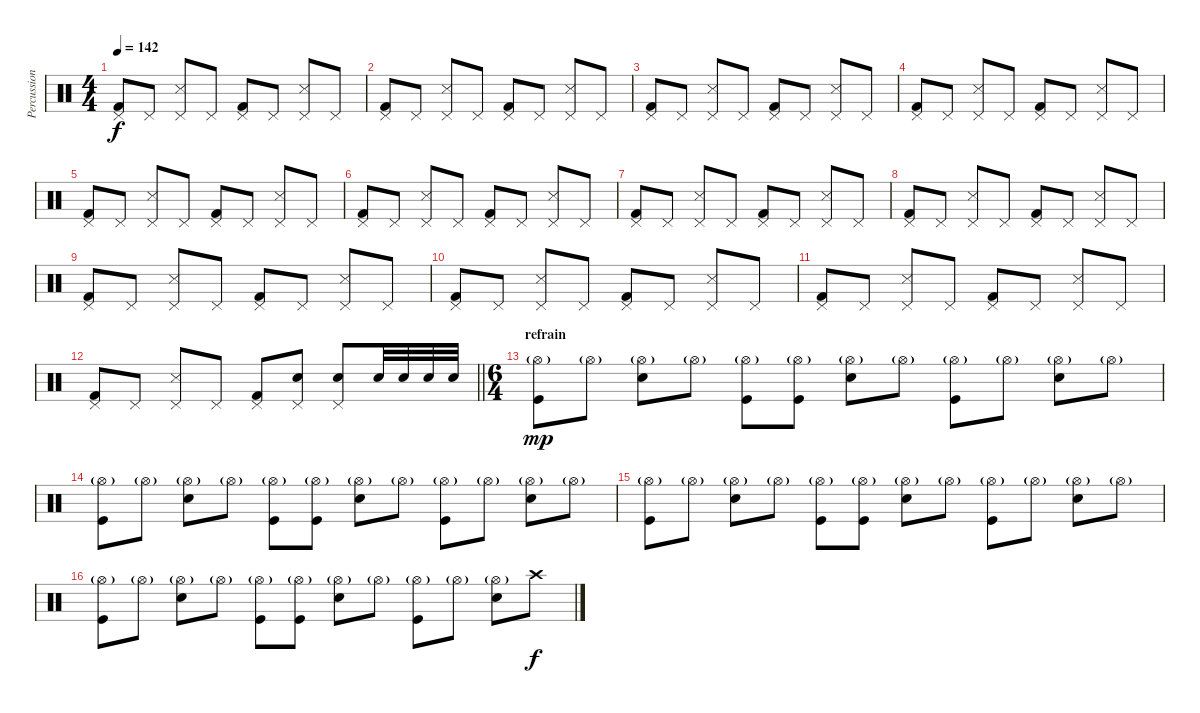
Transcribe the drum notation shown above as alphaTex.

\track ("Percussions" "Percussion") {instrument percussion}
\staff {score}
\articulation defaults
\ts (4 4)
\tempo 142
\clef neutral
\ks c
("Pedal Hi-Hat (hit)" "Kick (hit) 2").8{dy f} "Pedal Hi-Hat (hit)".8 ("Pedal Hi-Hat (hit)" "Snare (side stick) 3").8 "Pedal Hi-Hat (hit)".8 ("Pedal Hi-Hat (hit)" "Kick (hit) 2").8 "Pedal Hi-Hat (hit)".8 ("Pedal Hi-Hat (hit)" "Snare (side stick) 3").8 "Pedal Hi-Hat (hit)".8 |
("Pedal Hi-Hat (hit)" "Kick (hit) 2").8 "Pedal Hi-Hat (hit)".8 ("Pedal Hi-Hat (hit)" "Snare (side stick) 3").8 "Pedal Hi-Hat (hit)".8 ("Pedal Hi-Hat (hit)" "Kick (hit) 2").8 "Pedal Hi-Hat (hit)".8 ("Pedal Hi-Hat (hit)" "Snare (side stick) 3").8 "Pedal Hi-Hat (hit)".8 |
("Pedal Hi-Hat (hit)" "Kick (hit) 2").8 "Pedal Hi-Hat (hit)".8 ("Pedal Hi-Hat (hit)" "Snare (side stick) 3").8 "Pedal Hi-Hat (hit)".8 ("Pedal Hi-Hat (hit)" "Kick (hit) 2").8 "Pedal Hi-Hat (hit)".8 ("Pedal Hi-Hat (hit)" "Snare (side stick) 3").8 "Pedal Hi-Hat (hit)".8 |
("Pedal Hi-Hat (hit)" "Kick (hit) 2").8 "Pedal Hi-Hat (hit)".8 ("Pedal Hi-Hat (hit)" "Snare (side stick) 3").8 "Pedal Hi-Hat (hit)".8 ("Pedal Hi-Hat (hit)" "Kick (hit) 2").8 "Pedal Hi-Hat (hit)".8 ("Pedal Hi-Hat (hit)" "Snare (side stick) 3").8 "Pedal Hi-Hat (hit)".8 |
("Pedal Hi-Hat (hit)" "Kick (hit) 2").8 "Pedal Hi-Hat (hit)".8 ("Pedal Hi-Hat (hit)" "Snare (side stick) 3").8 "Pedal Hi-Hat (hit)".8 ("Pedal Hi-Hat (hit)" "Kick (hit) 2").8 "Pedal Hi-Hat (hit)".8 ("Pedal Hi-Hat (hit)" "Snare (side stick) 3").8 "Pedal Hi-Hat (hit)".8 |
("Pedal Hi-Hat (hit)" "Kick (hit) 2").8 "Pedal Hi-Hat (hit)".8 ("Pedal Hi-Hat (hit)" "Snare (side stick) 3").8 "Pedal Hi-Hat (hit)".8 ("Pedal Hi-Hat (hit)" "Kick (hit) 2").8 "Pedal Hi-Hat (hit)".8 ("Pedal Hi-Hat (hit)" "Snare (side stick) 3").8 "Pedal Hi-Hat (hit)".8 |
("Pedal Hi-Hat (hit)" "Kick (hit) 2").8 "Pedal Hi-Hat (hit)".8 ("Pedal Hi-Hat (hit)" "Snare (side stick) 3").8 "Pedal Hi-Hat (hit)".8 ("Pedal Hi-Hat (hit)" "Kick (hit) 2").8 "Pedal Hi-Hat (hit)".8 ("Pedal Hi-Hat (hit)" "Snare (side stick) 3").8 "Pedal Hi-Hat (hit)".8 |
("Pedal Hi-Hat (hit)" "Kick (hit) 2").8 "Pedal Hi-Hat (hit)".8 ("Pedal Hi-Hat (hit)" "Snare (side stick) 3").8 "Pedal Hi-Hat (hit)".8 ("Pedal Hi-Hat (hit)" "Kick (hit) 2").8 "Pedal Hi-Hat (hit)".8 ("Pedal Hi-Hat (hit)" "Snare (side stick) 3").8 "Pedal Hi-Hat (hit)".8 |
("Pedal Hi-Hat (hit)" "Kick (hit) 2").8 "Pedal Hi-Hat (hit)".8 ("Pedal Hi-Hat (hit)" "Snare (side stick) 3").8 "Pedal Hi-Hat (hit)".8 ("Pedal Hi-Hat (hit)" "Kick (hit) 2").8 "Pedal Hi-Hat (hit)".8 ("Pedal Hi-Hat (hit)" "Snare (side stick) 3").8 "Pedal Hi-Hat (hit)".8 |
("Pedal Hi-Hat (hit)" "Kick (hit) 2").8 "Pedal Hi-Hat (hit)".8 ("Pedal Hi-Hat (hit)" "Snare (side stick) 3").8 "Pedal Hi-Hat (hit)".8 ("Pedal Hi-Hat (hit)" "Kick (hit) 2").8 "Pedal Hi-Hat (hit)".8 ("Pedal Hi-Hat (hit)" "Snare (side stick) 3").8 "Pedal Hi-Hat (hit)".8 |
("Pedal Hi-Hat (hit)" "Kick (hit) 2").8 "Pedal Hi-Hat (hit)".8 ("Pedal Hi-Hat (hit)" "Snare (side stick) 3").8 "Pedal Hi-Hat (hit)".8 ("Pedal Hi-Hat (hit)" "Kick (hit) 2").8 "Pedal Hi-Hat (hit)".8 ("Pedal Hi-Hat (hit)" "Snare (side stick) 3").8 "Pedal Hi-Hat (hit)".8 |
\barLineRight lightlight
("Pedal Hi-Hat (hit)" "Kick (hit) 2").8 "Pedal Hi-Hat (hit)".8 ("Pedal Hi-Hat (hit)" "Snare (side stick) 3").8 "Pedal Hi-Hat (hit)".8 ("Pedal Hi-Hat (hit)" "Kick (hit) 2").8 ("Pedal Hi-Hat (hit)" "Electric Snare (hit)").8 ("Pedal Hi-Hat (hit)" "Electric Snare (hit)").8 "Electric Snare (hit)".32 "Electric Snare (hit)".32 "Electric Snare (hit)".32 "Electric Snare (hit)".32 |
\ts (6 4)
\section ("" "refrain")
("Hi-Hat (open)"{g} "Kick (hit)").8{dy mp} "Hi-Hat (open)"{g}.8 ("Hi-Hat (open)"{g} "Electric Snare (hit)").8 "Hi-Hat (open)"{g}.8 ("Hi-Hat (open)"{g} "Kick (hit)").8 ("Hi-Hat (open)"{g} "Kick (hit)").8 ("Hi-Hat (open)"{g} "Electric Snare (hit)").8 "Hi-Hat (open)"{g}.8 ("Hi-Hat (open)"{g} "Kick (hit)").8 "Hi-Hat (open)"{g}.8 ("Hi-Hat (open)"{g} "Electric Snare (hit)").8 "Hi-Hat (open)"{g}.8 |
("Hi-Hat (open)"{g} "Kick (hit)").8 "Hi-Hat (open)"{g}.8 ("Hi-Hat (open)"{g} "Electric Snare (hit)").8 "Hi-Hat (open)"{g}.8 ("Hi-Hat (open)"{g} "Kick (hit)").8 ("Hi-Hat (open)"{g} "Kick (hit)").8 ("Hi-Hat (open)"{g} "Electric Snare (hit)").8 "Hi-Hat (open)"{g}.8 ("Hi-Hat (open)"{g} "Kick (hit)").8 "Hi-Hat (open)"{g}.8 ("Hi-Hat (open)"{g} "Electric Snare (hit)").8 "Hi-Hat (open)"{g}.8 |
("Hi-Hat (open)"{g} "Kick (hit)").8 "Hi-Hat (open)"{g}.8 ("Hi-Hat (open)"{g} "Electric Snare (hit)").8 "Hi-Hat (open)"{g}.8 ("Hi-Hat (open)"{g} "Kick (hit)").8 ("Hi-Hat (open)"{g} "Kick (hit)").8 ("Hi-Hat (open)"{g} "Electric Snare (hit)").8 "Hi-Hat (open)"{g}.8 ("Hi-Hat (open)"{g} "Kick (hit)").8 "Hi-Hat (open)"{g}.8 ("Hi-Hat (open)"{g} "Electric Snare (hit)").8 "Hi-Hat (open)"{g}.8 |
("Hi-Hat (open)"{g} "Kick (hit)").8 "Hi-Hat (open)"{g}.8 ("Hi-Hat (open)"{g} "Electric Snare (hit)").8 "Hi-Hat (open)"{g}.8 ("Hi-Hat (open)"{g} "Kick (hit)").8 ("Hi-Hat (open)"{g} "Kick (hit)").8 ("Hi-Hat (open)"{g} "Electric Snare (hit)").8 "Hi-Hat (open)"{g}.8 ("Hi-Hat (open)"{g} "Kick (hit)").8 "Hi-Hat (open)"{g}.8 ("Hi-Hat (open)"{g} "Electric Snare (hit)").8 "Crash high (hit)".8{dy f}
